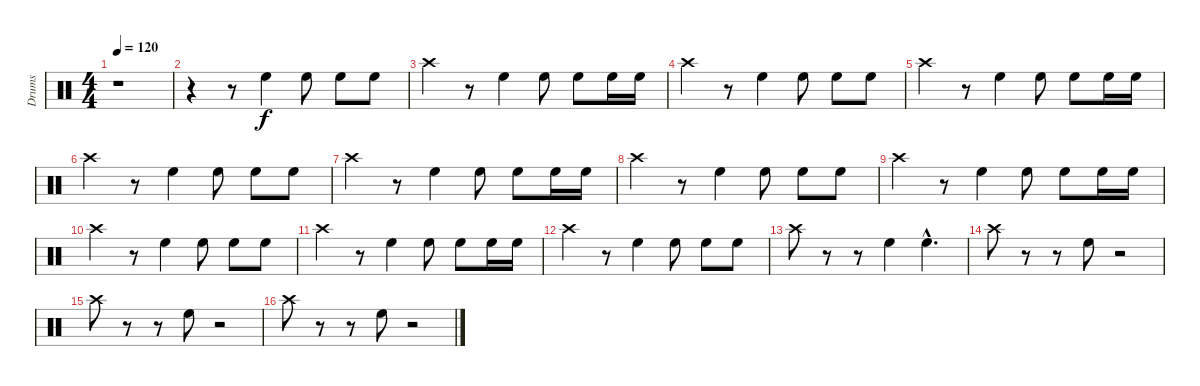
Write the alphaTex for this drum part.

\track ("Drums" "Drums") {instrument percussion}
\staff {score}
\articulation defaults
\ts (4 4)
\tempo 120
\clef neutral
\ks c
r.1{dy f} |
r.4 r.8 "High Floor Tom (hit)".4 "High Floor Tom (hit)".8 "High Floor Tom (hit)".8 "High Floor Tom (hit)".8 |
"Crash high (hit)".4 r.8 "High Floor Tom (hit)".4 "High Floor Tom (hit)".8 "High Floor Tom (hit)".8 "High Floor Tom (hit)".16 "High Floor Tom (hit)".16 |
"Crash high (hit)".4 r.8 "High Floor Tom (hit)".4 "High Floor Tom (hit)".8 "High Floor Tom (hit)".8 "High Floor Tom (hit)".8 |
"Crash high (hit)".4 r.8 "High Floor Tom (hit)".4 "High Floor Tom (hit)".8 "High Floor Tom (hit)".8 "High Floor Tom (hit)".16 "High Floor Tom (hit)".16 |
"Crash high (hit)".4 r.8 "High Floor Tom (hit)".4 "High Floor Tom (hit)".8 "High Floor Tom (hit)".8 "High Floor Tom (hit)".8 |
"Crash high (hit)".4 r.8 "High Floor Tom (hit)".4 "High Floor Tom (hit)".8 "High Floor Tom (hit)".8 "High Floor Tom (hit)".16 "High Floor Tom (hit)".16 |
"Crash high (hit)".4 r.8 "High Floor Tom (hit)".4 "High Floor Tom (hit)".8 "High Floor Tom (hit)".8 "High Floor Tom (hit)".8 |
"Crash high (hit)".4 r.8 "High Floor Tom (hit)".4 "High Floor Tom (hit)".8 "High Floor Tom (hit)".8 "High Floor Tom (hit)".16 "High Floor Tom (hit)".16 |
"Crash high (hit)".4 r.8 "High Floor Tom (hit)".4 "High Floor Tom (hit)".8 "High Floor Tom (hit)".8 "High Floor Tom (hit)".8 |
"Crash high (hit)".4 r.8 "High Floor Tom (hit)".4 "High Floor Tom (hit)".8 "High Floor Tom (hit)".8 "High Floor Tom (hit)".16 "High Floor Tom (hit)".16 |
"Crash high (hit)".4 r.8 "High Floor Tom (hit)".4 "High Floor Tom (hit)".8 "High Floor Tom (hit)".8 "High Floor Tom (hit)".8 |
"Crash high (hit)".8 r.8 r.8 "High Floor Tom (hit)".4 "High Floor Tom (hit)"{hac}.4{d} |
"Crash high (hit)".8 r.8 r.8 "High Floor Tom (hit)".8 r.2 |
"Crash high (hit)".8 r.8 r.8 "High Floor Tom (hit)".8 r.2 |
"Crash high (hit)".8 r.8 r.8 "High Floor Tom (hit)".8 r.2
